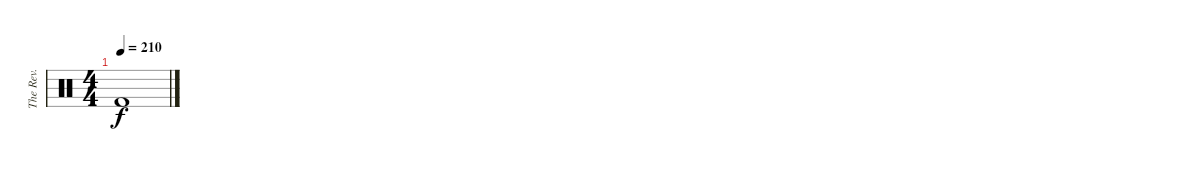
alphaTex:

\track ("The Rev." "The Rev.") {instrument percussion}
\staff {score}
\articulation defaults
\ts (4 4)
\tempo 210
\clef neutral
\ks c "Kick (hit) 2".1{dy f}
